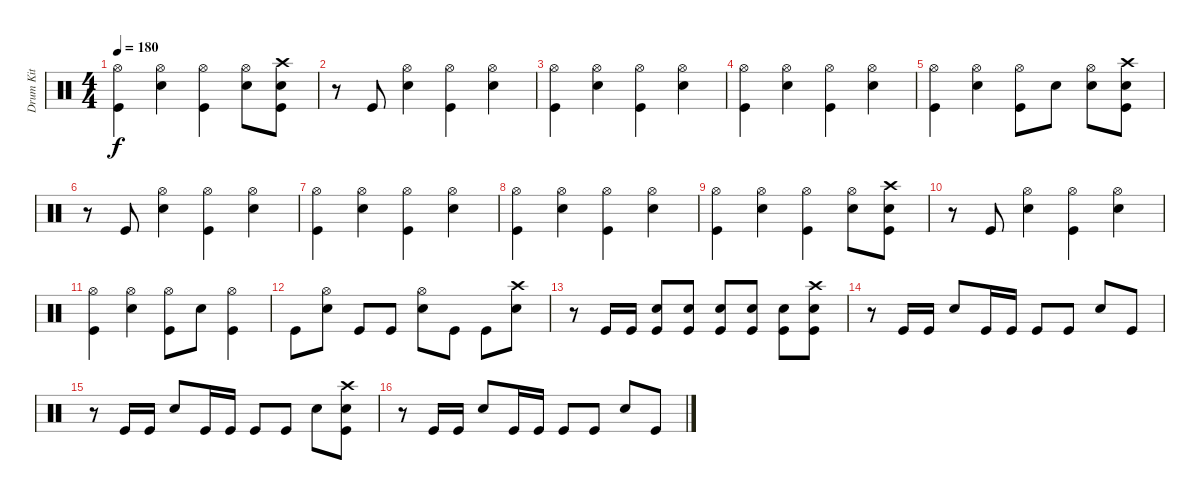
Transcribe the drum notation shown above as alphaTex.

\track ("Drum Kit" "Drum Kit") {instrument percussion}
\staff {score}
\articulation defaults
\ts (4 4)
\tempo 180
\clef neutral
\ks c
("Kick (hit)" "Hi-Hat (open)").4{dy f} ("Snare (hit) 2" "Hi-Hat (open)").4 ("Kick (hit)" "Hi-Hat (open)").4 ("Snare (hit) 2" "Hi-Hat (open)").8 ("Snare (hit) 2" "Crash high (hit)" "Kick (hit)").8 |
r.8 "Kick (hit)".8 ("Snare (hit) 2" "Hi-Hat (open)").4 ("Kick (hit)" "Hi-Hat (open)").4 ("Snare (hit) 2" "Hi-Hat (open)").4 |
("Kick (hit)" "Hi-Hat (open)").4 ("Snare (hit) 2" "Hi-Hat (open)").4 ("Kick (hit)" "Hi-Hat (open)").4 ("Snare (hit) 2" "Hi-Hat (open)").4 |
("Kick (hit)" "Hi-Hat (open)").4 ("Snare (hit) 2" "Hi-Hat (open)").4 ("Kick (hit)" "Hi-Hat (open)").4 ("Snare (hit) 2" "Hi-Hat (open)").4 |
("Kick (hit)" "Hi-Hat (open)").4 ("Snare (hit) 2" "Hi-Hat (open)").4 ("Kick (hit)" "Hi-Hat (open)").8 "Snare (hit) 2".8 ("Snare (hit) 2" "Hi-Hat (open)").8 ("Snare (hit) 2" "Crash high (hit)" "Kick (hit)").8 |
r.8 "Kick (hit)".8 ("Snare (hit) 2" "Hi-Hat (open)").4 ("Kick (hit)" "Hi-Hat (open)").4 ("Snare (hit) 2" "Hi-Hat (open)").4 |
("Kick (hit)" "Hi-Hat (open)").4 ("Snare (hit) 2" "Hi-Hat (open)").4 ("Kick (hit)" "Hi-Hat (open)").4 ("Snare (hit) 2" "Hi-Hat (open)").4 |
("Kick (hit)" "Hi-Hat (open)").4 ("Snare (hit) 2" "Hi-Hat (open)").4 ("Kick (hit)" "Hi-Hat (open)").4 ("Snare (hit) 2" "Hi-Hat (open)").4 |
("Kick (hit)" "Hi-Hat (open)").4 ("Snare (hit) 2" "Hi-Hat (open)").4 ("Kick (hit)" "Hi-Hat (open)").4 ("Snare (hit) 2" "Hi-Hat (open)").8 ("Snare (hit) 2" "Crash high (hit)" "Kick (hit)").8 |
r.8 "Kick (hit)".8 ("Snare (hit) 2" "Hi-Hat (open)").4 ("Kick (hit)" "Hi-Hat (open)").4 ("Snare (hit) 2" "Hi-Hat (open)").4 |
("Kick (hit)" "Hi-Hat (open)").4 ("Snare (hit) 2" "Hi-Hat (open)").4 ("Kick (hit)" "Hi-Hat (open)").8 "Snare (hit) 2".8 ("Kick (hit)" "Hi-Hat (open)").4 |
"Kick (hit)".8 ("Snare (hit) 2" "Hi-Hat (open)").8 "Kick (hit)".8 "Kick (hit)".8 ("Snare (hit) 2" "Hi-Hat (open)").8 "Kick (hit)".8 "Kick (hit)".8 ("Snare (hit) 2" "Crash high (hit)").8 |
r.8 "Kick (hit)".16 "Kick (hit)".16 ("Kick (hit)" "Snare (hit) 2").8 ("Snare (hit) 2" "Kick (hit)").8 ("Snare (hit) 2" "Kick (hit)").8 ("Snare (hit) 2" "Kick (hit)").8 ("Kick (hit)" "Snare (hit) 2").8 ("Kick (hit)" "Snare (hit) 2" "Crash high (hit)").8 |
r.8 "Kick (hit)".16 "Kick (hit)".16 "Snare (hit) 2".8 "Kick (hit)".16 "Kick (hit)".16 "Kick (hit)".8 "Kick (hit)".8 "Snare (hit) 2".8 "Kick (hit)".8 |
r.8 "Kick (hit)".16 "Kick (hit)".16 "Snare (hit) 2".8 "Kick (hit)".16 "Kick (hit)".16 "Kick (hit)".8 "Kick (hit)".8 "Snare (hit) 2".8 ("Kick (hit)" "Snare (hit) 2" "Crash high (hit)").8 |
r.8 "Kick (hit)".16 "Kick (hit)".16 "Snare (hit) 2".8 "Kick (hit)".16 "Kick (hit)".16 "Kick (hit)".8 "Kick (hit)".8 "Snare (hit) 2".8 "Kick (hit)".8
